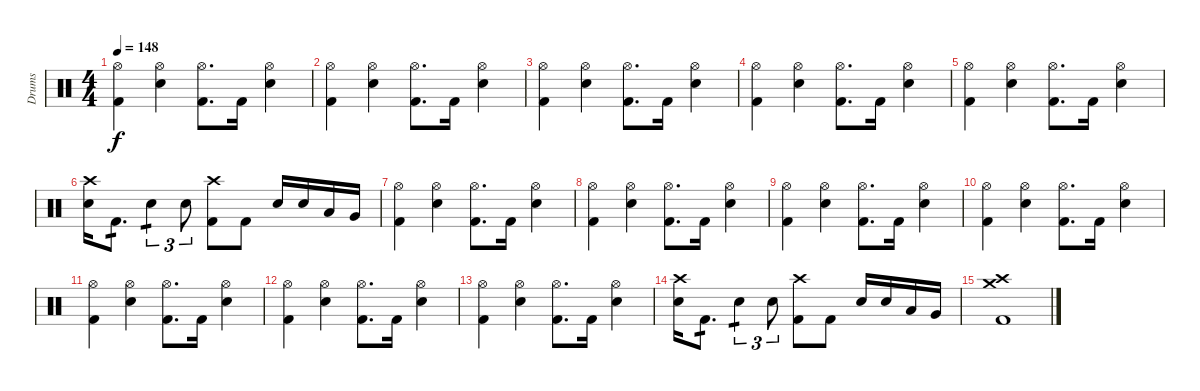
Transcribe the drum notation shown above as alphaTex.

\track ("Drums" "Drums") {instrument percussion}
\staff {score}
\articulation defaults
\ts (4 4)
\tempo 148
\clef neutral
\ks c
("Hi-Hat (open)" "Kick (hit) 2").4{dy f} ("Hi-Hat (open)" "Electric Snare (hit)").4 ("Hi-Hat (open)" "Kick (hit) 2").8{d} "Kick (hit) 2".16 ("Hi-Hat (open)" "Electric Snare (hit)").4 |
("Hi-Hat (open)" "Kick (hit) 2").4 ("Hi-Hat (open)" "Electric Snare (hit)").4 ("Hi-Hat (open)" "Kick (hit) 2").8{d} "Kick (hit) 2".16 ("Hi-Hat (open)" "Electric Snare (hit)").4 |
("Hi-Hat (open)" "Kick (hit) 2").4 ("Hi-Hat (open)" "Electric Snare (hit)").4 ("Hi-Hat (open)" "Kick (hit) 2").8{d} "Kick (hit) 2".16 ("Hi-Hat (open)" "Electric Snare (hit)").4 |
("Hi-Hat (open)" "Kick (hit) 2").4 ("Hi-Hat (open)" "Electric Snare (hit)").4 ("Hi-Hat (open)" "Kick (hit) 2").8{d} "Kick (hit) 2".16 ("Hi-Hat (open)" "Electric Snare (hit)").4 |
("Hi-Hat (open)" "Kick (hit) 2").4 ("Hi-Hat (open)" "Electric Snare (hit)").4 ("Hi-Hat (open)" "Kick (hit) 2").8{d} "Kick (hit) 2".16 ("Hi-Hat (open)" "Electric Snare (hit)").4 |
("Crash high (hit)" "Electric Snare (hit)").16 "Kick (hit) 2".8{d tp 1} "Electric Snare (hit)".4{tu (3 2) tp 1} "Electric Snare (hit)".8{tu (3 2)} ("Crash high (hit)" "Kick (hit) 2").8 "Kick (hit) 2".8 "Electric Snare (hit)".16 "Electric Snare (hit)".16 "Low Tom (hit)".16 "Very Low Tom (hit)".16 |
("Hi-Hat (open)" "Kick (hit) 2").4 ("Hi-Hat (open)" "Electric Snare (hit)").4 ("Hi-Hat (open)" "Kick (hit) 2").8{d} "Kick (hit) 2".16 ("Hi-Hat (open)" "Electric Snare (hit)").4 |
("Hi-Hat (open)" "Kick (hit) 2").4 ("Hi-Hat (open)" "Electric Snare (hit)").4 ("Hi-Hat (open)" "Kick (hit) 2").8{d} "Kick (hit) 2".16 ("Hi-Hat (open)" "Electric Snare (hit)").4 |
("Hi-Hat (open)" "Kick (hit) 2").4 ("Hi-Hat (open)" "Electric Snare (hit)").4 ("Hi-Hat (open)" "Kick (hit) 2").8{d} "Kick (hit) 2".16 ("Hi-Hat (open)" "Electric Snare (hit)").4 |
("Hi-Hat (open)" "Kick (hit) 2").4 ("Hi-Hat (open)" "Electric Snare (hit)").4 ("Hi-Hat (open)" "Kick (hit) 2").8{d} "Kick (hit) 2".16 ("Hi-Hat (open)" "Electric Snare (hit)").4 |
("Hi-Hat (open)" "Kick (hit) 2").4 ("Hi-Hat (open)" "Electric Snare (hit)").4 ("Hi-Hat (open)" "Kick (hit) 2").8{d} "Kick (hit) 2".16 ("Hi-Hat (open)" "Electric Snare (hit)").4 |
("Hi-Hat (open)" "Kick (hit) 2").4 ("Hi-Hat (open)" "Electric Snare (hit)").4 ("Hi-Hat (open)" "Kick (hit) 2").8{d} "Kick (hit) 2".16 ("Hi-Hat (open)" "Electric Snare (hit)").4 |
("Hi-Hat (open)" "Kick (hit) 2").4 ("Hi-Hat (open)" "Electric Snare (hit)").4 ("Hi-Hat (open)" "Kick (hit) 2").8{d} "Kick (hit) 2".16 ("Hi-Hat (open)" "Electric Snare (hit)").4 |
("Crash high (hit)" "Electric Snare (hit)").16 "Kick (hit) 2".8{d tp 1} "Electric Snare (hit)".4{tu (3 2) tp 1} "Electric Snare (hit)".8{tu (3 2)} ("Crash high (hit)" "Kick (hit) 2").8 "Kick (hit) 2".8 "Electric Snare (hit)".16 "Electric Snare (hit)".16 "Low Tom (hit)".16 "Very Low Tom (hit)".16 |
("Crash high (hit)" "Crash medium (hit)" "Kick (hit) 2").1
